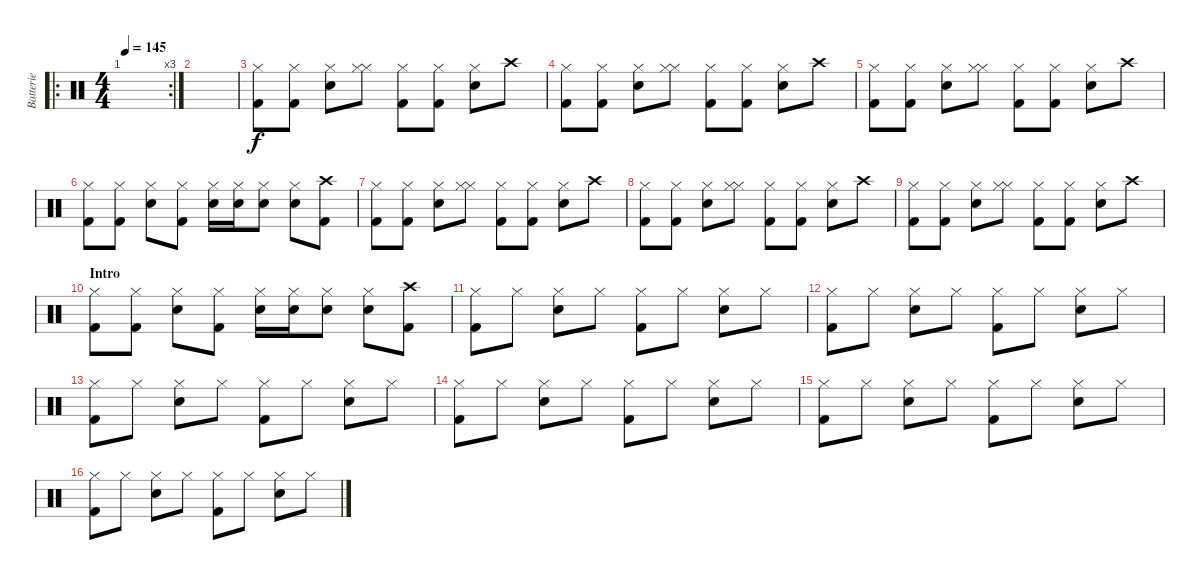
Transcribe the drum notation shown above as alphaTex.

\track ("Batterie" "Batterie") {instrument percussion}
\staff {score}
\articulation defaults
\ro
\rc 3
\ts (4 4)
\tempo 145
\clef neutral
\ks c
|
|
("Kick (hit) 2" "Hi-Hat (closed)").8 ("Kick (hit) 2" "Hi-Hat (closed)").8 ("Snare (hit) 2" "Hi-Hat (closed)").8 ("Hi-Hat (closed)" "Hi-Hat (closed)").8 ("Kick (hit) 2" "Hi-Hat (closed)").8 ("Kick (hit) 2" "Hi-Hat (closed)").8 ("Snare (hit) 2" "Hi-Hat (closed)").8 "Crash high (hit)".8 |
("Kick (hit) 2" "Hi-Hat (closed)").8 ("Kick (hit) 2" "Hi-Hat (closed)").8 ("Snare (hit) 2" "Hi-Hat (closed)").8 ("Hi-Hat (closed)" "Hi-Hat (closed)").8 ("Kick (hit) 2" "Hi-Hat (closed)").8 ("Kick (hit) 2" "Hi-Hat (closed)").8 ("Snare (hit) 2" "Hi-Hat (closed)").8 "Crash high (hit)".8 |
("Kick (hit) 2" "Hi-Hat (closed)").8 ("Kick (hit) 2" "Hi-Hat (closed)").8 ("Snare (hit) 2" "Hi-Hat (closed)").8 ("Hi-Hat (closed)" "Hi-Hat (closed)").8 ("Kick (hit) 2" "Hi-Hat (closed)").8 ("Kick (hit) 2" "Hi-Hat (closed)").8 ("Snare (hit) 2" "Hi-Hat (closed)").8 "Crash high (hit)".8 |
("Kick (hit) 2" "Hi-Hat (closed)").8 ("Kick (hit) 2" "Hi-Hat (closed)").8 ("Snare (hit) 2" "Hi-Hat (closed)").8 ("Kick (hit) 2" "Hi-Hat (closed)").8 ("Snare (hit) 2" "Hi-Hat (closed)").16 ("Snare (hit) 2" "Hi-Hat (closed)").16 ("Snare (hit) 2" "Hi-Hat (closed)").8 ("Snare (hit) 2" "Hi-Hat (closed)").8 ("Kick (hit) 2" "Crash high (hit)").8 |
("Kick (hit) 2" "Hi-Hat (closed)").8 ("Kick (hit) 2" "Hi-Hat (closed)").8 ("Snare (hit) 2" "Hi-Hat (closed)").8 ("Hi-Hat (closed)" "Hi-Hat (closed)").8 ("Kick (hit) 2" "Hi-Hat (closed)").8 ("Kick (hit) 2" "Hi-Hat (closed)").8 ("Snare (hit) 2" "Hi-Hat (closed)").8 "Crash high (hit)".8 |
("Kick (hit) 2" "Hi-Hat (closed)").8 ("Kick (hit) 2" "Hi-Hat (closed)").8 ("Snare (hit) 2" "Hi-Hat (closed)").8 ("Hi-Hat (closed)" "Hi-Hat (closed)").8 ("Kick (hit) 2" "Hi-Hat (closed)").8 ("Kick (hit) 2" "Hi-Hat (closed)").8 ("Snare (hit) 2" "Hi-Hat (closed)").8 "Crash high (hit)".8 |
("Kick (hit) 2" "Hi-Hat (closed)").8 ("Kick (hit) 2" "Hi-Hat (closed)").8 ("Snare (hit) 2" "Hi-Hat (closed)").8 ("Hi-Hat (closed)" "Hi-Hat (closed)").8 ("Kick (hit) 2" "Hi-Hat (closed)").8 ("Kick (hit) 2" "Hi-Hat (closed)").8 ("Snare (hit) 2" "Hi-Hat (closed)").8 "Crash high (hit)".8 |
\section ("" "Intro")
("Kick (hit) 2" "Hi-Hat (closed)").8 ("Kick (hit) 2" "Hi-Hat (closed)").8 ("Snare (hit) 2" "Hi-Hat (closed)").8 ("Kick (hit) 2" "Hi-Hat (closed)").8 ("Snare (hit) 2" "Hi-Hat (closed)").16 ("Snare (hit) 2" "Hi-Hat (closed)").16 ("Snare (hit) 2" "Hi-Hat (closed)").8 ("Snare (hit) 2" "Hi-Hat (closed)").8 ("Kick (hit) 2" "Crash high (hit)").8 |
("Kick (hit) 2" "Hi-Hat (closed)").8 "Hi-Hat (closed)".8 ("Snare (hit) 2" "Hi-Hat (closed)").8 "Hi-Hat (closed)".8 ("Kick (hit) 2" "Hi-Hat (closed)").8 "Hi-Hat (closed)".8 ("Snare (hit) 2" "Hi-Hat (closed)").8 "Hi-Hat (closed)".8 |
("Kick (hit) 2" "Hi-Hat (closed)").8 "Hi-Hat (closed)".8 ("Snare (hit) 2" "Hi-Hat (closed)").8 "Hi-Hat (closed)".8 ("Kick (hit) 2" "Hi-Hat (closed)").8 "Hi-Hat (closed)".8 ("Snare (hit) 2" "Hi-Hat (closed)").8 "Hi-Hat (closed)".8 |
("Kick (hit) 2" "Hi-Hat (closed)").8 "Hi-Hat (closed)".8 ("Snare (hit) 2" "Hi-Hat (closed)").8 "Hi-Hat (closed)".8 ("Kick (hit) 2" "Hi-Hat (closed)").8 "Hi-Hat (closed)".8 ("Snare (hit) 2" "Hi-Hat (closed)").8 "Hi-Hat (closed)".8 |
("Kick (hit) 2" "Hi-Hat (closed)").8 "Hi-Hat (closed)".8 ("Snare (hit) 2" "Hi-Hat (closed)").8 "Hi-Hat (closed)".8 ("Kick (hit) 2" "Hi-Hat (closed)").8 "Hi-Hat (closed)".8 ("Snare (hit) 2" "Hi-Hat (closed)").8 "Hi-Hat (closed)".8 |
("Kick (hit) 2" "Hi-Hat (closed)").8 "Hi-Hat (closed)".8 ("Snare (hit) 2" "Hi-Hat (closed)").8 "Hi-Hat (closed)".8 ("Kick (hit) 2" "Hi-Hat (closed)").8 "Hi-Hat (closed)".8 ("Snare (hit) 2" "Hi-Hat (closed)").8 "Hi-Hat (closed)".8 |
("Kick (hit) 2" "Hi-Hat (closed)").8 "Hi-Hat (closed)".8 ("Snare (hit) 2" "Hi-Hat (closed)").8 "Hi-Hat (closed)".8 ("Kick (hit) 2" "Hi-Hat (closed)").8 "Hi-Hat (closed)".8 ("Snare (hit) 2" "Hi-Hat (closed)").8 "Hi-Hat (closed)".8
